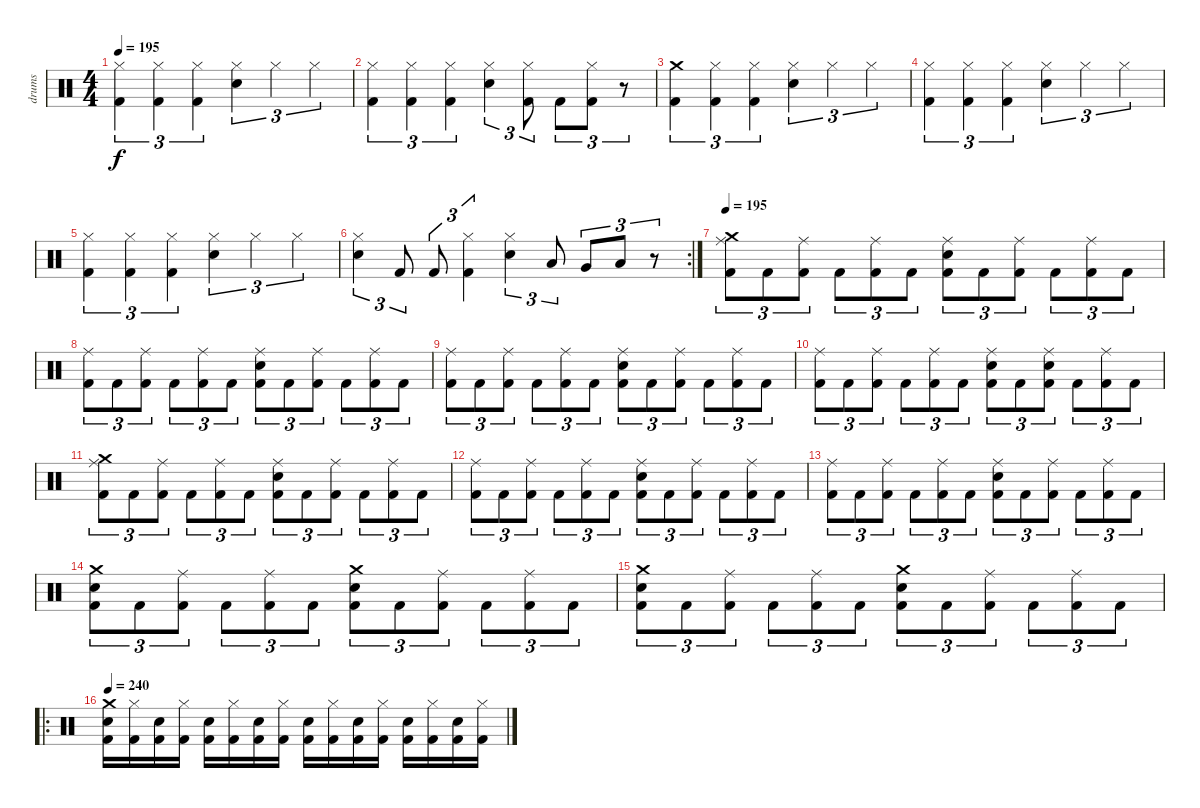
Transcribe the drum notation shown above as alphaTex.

\track ("drums" "drums") {instrument percussion}
\staff {score}
\articulation defaults
\ts (4 4)
\tempo 195
\clef neutral
\ks c
("Hi-Hat (closed)" "Kick (hit) 2").4{tu (3 2) dy f} ("Hi-Hat (closed)" "Kick (hit) 2").4{tu (3 2)} ("Hi-Hat (closed)" "Kick (hit) 2").4{tu (3 2)} ("Hi-Hat (closed)" "Snare (hit) 2").4{tu (3 2)} "Hi-Hat (closed)".4{tu (3 2)} "Hi-Hat (closed)".4{tu (3 2)} |
("Hi-Hat (closed)" "Kick (hit) 2").4{tu (3 2)} ("Hi-Hat (closed)" "Kick (hit) 2").4{tu (3 2)} ("Hi-Hat (closed)" "Kick (hit) 2").4{tu (3 2)} ("Hi-Hat (closed)" "Snare (hit) 2").4{tu (3 2)} ("Hi-Hat (closed)" "Kick (hit) 2").8{tu (3 2)} "Kick (hit) 2".8{tu (3 2)} ("Hi-Hat (closed)" "Kick (hit) 2").8{tu (3 2)} r.8{tu (3 2)} |
("Crash medium (hit)" "Kick (hit) 2").4{tu (3 2)} ("Hi-Hat (closed)" "Kick (hit) 2").4{tu (3 2)} ("Hi-Hat (closed)" "Kick (hit) 2").4{tu (3 2)} ("Hi-Hat (closed)" "Snare (hit) 2").4{tu (3 2)} "Hi-Hat (closed)".4{tu (3 2)} "Hi-Hat (closed)".4{tu (3 2)} |
("Hi-Hat (closed)" "Kick (hit) 2").4{tu (3 2)} ("Hi-Hat (closed)" "Kick (hit) 2").4{tu (3 2)} ("Hi-Hat (closed)" "Kick (hit) 2").4{tu (3 2)} ("Hi-Hat (closed)" "Snare (hit) 2").4{tu (3 2)} "Hi-Hat (closed)".4{tu (3 2)} "Hi-Hat (closed)".4{tu (3 2)} |
("Hi-Hat (closed)" "Kick (hit) 2").4{tu (3 2)} ("Hi-Hat (closed)" "Kick (hit) 2").4{tu (3 2)} ("Hi-Hat (closed)" "Kick (hit) 2").4{tu (3 2)} ("Hi-Hat (closed)" "Snare (hit) 2").4{tu (3 2)} "Hi-Hat (closed)".4{tu (3 2)} "Hi-Hat (closed)".4{tu (3 2)} |
\rc 2
("Hi-Hat (closed)" "Snare (hit) 2").4{tu (3 2)} "Kick (hit) 2".8{tu (3 2)} "Kick (hit) 2".8{tu (3 2)} ("Hi-Hat (closed)" "Kick (hit) 2").4{tu (3 2)} ("Hi-Hat (closed)" "Snare (hit) 2").4{tu (3 2)} "Low Tom (hit)".8{tu (3 2)} "Very Low Tom (hit)".8{tu (3 2)} "Low Floor Tom (hit)".8{tu (3 2)} r.8{tu (3 2)} |
\tempo 195
("Crash medium (hit)" "Ride (middle)" "Kick (hit) 2").8{tu (3 2)} "Kick (hit) 2".8{tu (3 2)} ("Ride (middle)" "Kick (hit) 2").8{tu (3 2)} "Kick (hit) 2".8{tu (3 2)} ("Ride (middle)" "Kick (hit) 2").8{tu (3 2)} "Kick (hit) 2".8{tu (3 2)} ("Snare (hit) 2" "Ride (middle)" "Kick (hit) 2").8{tu (3 2)} "Kick (hit) 2".8{tu (3 2)} ("Ride (middle)" "Kick (hit) 2").8{tu (3 2)} "Kick (hit) 2".8{tu (3 2)} ("Ride (middle)" "Kick (hit) 2").8{tu (3 2)} "Kick (hit) 2".8{tu (3 2)} |
("Ride (middle)" "Kick (hit) 2").8{tu (3 2)} "Kick (hit) 2".8{tu (3 2)} ("Ride (middle)" "Kick (hit) 2").8{tu (3 2)} "Kick (hit) 2".8{tu (3 2)} ("Ride (middle)" "Kick (hit) 2").8{tu (3 2)} "Kick (hit) 2".8{tu (3 2)} ("Snare (hit) 2" "Ride (middle)" "Kick (hit) 2").8{tu (3 2)} "Kick (hit) 2".8{tu (3 2)} ("Ride (middle)" "Kick (hit) 2").8{tu (3 2)} "Kick (hit) 2".8{tu (3 2)} ("Ride (middle)" "Kick (hit) 2").8{tu (3 2)} "Kick (hit) 2".8{tu (3 2)} |
("Ride (middle)" "Kick (hit) 2").8{tu (3 2)} "Kick (hit) 2".8{tu (3 2)} ("Ride (middle)" "Kick (hit) 2").8{tu (3 2)} "Kick (hit) 2".8{tu (3 2)} ("Ride (middle)" "Kick (hit) 2").8{tu (3 2)} "Kick (hit) 2".8{tu (3 2)} ("Snare (hit) 2" "Ride (middle)" "Kick (hit) 2").8{tu (3 2)} "Kick (hit) 2".8{tu (3 2)} ("Ride (middle)" "Kick (hit) 2").8{tu (3 2)} "Kick (hit) 2".8{tu (3 2)} ("Ride (middle)" "Kick (hit) 2").8{tu (3 2)} "Kick (hit) 2".8{tu (3 2)} |
("Ride (middle)" "Kick (hit) 2").8{tu (3 2)} "Kick (hit) 2".8{tu (3 2)} ("Ride (middle)" "Kick (hit) 2").8{tu (3 2)} "Kick (hit) 2".8{tu (3 2)} ("Ride (middle)" "Kick (hit) 2").8{tu (3 2)} "Kick (hit) 2".8{tu (3 2)} ("Snare (hit) 2" "Ride (middle)" "Kick (hit) 2").8{tu (3 2)} "Kick (hit) 2".8{tu (3 2)} ("Snare (hit) 2" "Ride (middle)" "Kick (hit) 2").8{tu (3 2)} "Kick (hit) 2".8{tu (3 2)} ("Ride (middle)" "Kick (hit) 2").8{tu (3 2)} "Kick (hit) 2".8{tu (3 2)} |
("Crash medium (hit)" "Ride (middle)" "Kick (hit) 2").8{tu (3 2)} "Kick (hit) 2".8{tu (3 2)} ("Ride (middle)" "Kick (hit) 2").8{tu (3 2)} "Kick (hit) 2".8{tu (3 2)} ("Ride (middle)" "Kick (hit) 2").8{tu (3 2)} "Kick (hit) 2".8{tu (3 2)} ("Snare (hit) 2" "Ride (middle)" "Kick (hit) 2").8{tu (3 2)} "Kick (hit) 2".8{tu (3 2)} ("Ride (middle)" "Kick (hit) 2").8{tu (3 2)} "Kick (hit) 2".8{tu (3 2)} ("Ride (middle)" "Kick (hit) 2").8{tu (3 2)} "Kick (hit) 2".8{tu (3 2)} |
("Ride (middle)" "Kick (hit) 2").8{tu (3 2)} "Kick (hit) 2".8{tu (3 2)} ("Ride (middle)" "Kick (hit) 2").8{tu (3 2)} "Kick (hit) 2".8{tu (3 2)} ("Ride (middle)" "Kick (hit) 2").8{tu (3 2)} "Kick (hit) 2".8{tu (3 2)} ("Snare (hit) 2" "Ride (middle)" "Kick (hit) 2").8{tu (3 2)} "Kick (hit) 2".8{tu (3 2)} ("Ride (middle)" "Kick (hit) 2").8{tu (3 2)} "Kick (hit) 2".8{tu (3 2)} ("Ride (middle)" "Kick (hit) 2").8{tu (3 2)} "Kick (hit) 2".8{tu (3 2)} |
("Ride (middle)" "Kick (hit) 2").8{tu (3 2)} "Kick (hit) 2".8{tu (3 2)} ("Ride (middle)" "Kick (hit) 2").8{tu (3 2)} "Kick (hit) 2".8{tu (3 2)} ("Ride (middle)" "Kick (hit) 2").8{tu (3 2)} "Kick (hit) 2".8{tu (3 2)} ("Snare (hit) 2" "Ride (middle)" "Kick (hit) 2").8{tu (3 2)} "Kick (hit) 2".8{tu (3 2)} ("Ride (middle)" "Kick (hit) 2").8{tu (3 2)} "Kick (hit) 2".8{tu (3 2)} ("Ride (middle)" "Kick (hit) 2").8{tu (3 2)} "Kick (hit) 2".8{tu (3 2)} |
("Crash medium (hit)" "Snare (hit) 2" "Kick (hit) 2").8{tu (3 2)} "Kick (hit) 2".8{tu (3 2)} ("Ride (middle)" "Kick (hit) 2").8{tu (3 2)} "Kick (hit) 2".8{tu (3 2)} ("Ride (middle)" "Kick (hit) 2").8{tu (3 2)} "Kick (hit) 2".8{tu (3 2)} ("Crash medium (hit)" "Snare (hit) 2" "Kick (hit) 2").8{tu (3 2)} "Kick (hit) 2".8{tu (3 2)} ("Ride (middle)" "Kick (hit) 2").8{tu (3 2)} "Kick (hit) 2".8{tu (3 2)} ("Ride (middle)" "Kick (hit) 2").8{tu (3 2)} "Kick (hit) 2".8{tu (3 2)} |
("Crash medium (hit)" "Snare (hit) 2" "Kick (hit) 2").8{tu (3 2)} "Kick (hit) 2".8{tu (3 2)} ("Ride (middle)" "Kick (hit) 2").8{tu (3 2)} "Kick (hit) 2".8{tu (3 2)} ("Ride (middle)" "Kick (hit) 2").8{tu (3 2)} "Kick (hit) 2".8{tu (3 2)} ("Crash medium (hit)" "Snare (hit) 2" "Kick (hit) 2").8{tu (3 2)} "Kick (hit) 2".8{tu (3 2)} ("Ride (middle)" "Kick (hit) 2").8{tu (3 2)} "Kick (hit) 2".8{tu (3 2)} ("Ride (middle)" "Kick (hit) 2").8{tu (3 2)} "Kick (hit) 2".8{tu (3 2)} |
\ro
\tempo 240
("Crash medium (hit)" "Snare (hit) 2" "Kick (hit) 2").16 ("Hi-Hat (closed)" "Kick (hit) 2").16 ("Snare (hit) 2" "Kick (hit) 2").16 ("Hi-Hat (closed)" "Kick (hit) 2").16 ("Snare (hit) 2" "Kick (hit) 2").16 ("Hi-Hat (closed)" "Kick (hit) 2").16 ("Snare (hit) 2" "Kick (hit) 2").16 ("Hi-Hat (closed)" "Kick (hit) 2").16 ("Snare (hit) 2" "Kick (hit) 2").16 ("Hi-Hat (closed)" "Kick (hit) 2").16 ("Snare (hit) 2" "Kick (hit) 2").16 ("Hi-Hat (closed)" "Kick (hit) 2").16 ("Snare (hit) 2" "Kick (hit) 2").16 ("Hi-Hat (closed)" "Kick (hit) 2").16 ("Snare (hit) 2" "Kick (hit) 2").16 ("Hi-Hat (closed)" "Kick (hit) 2").16
